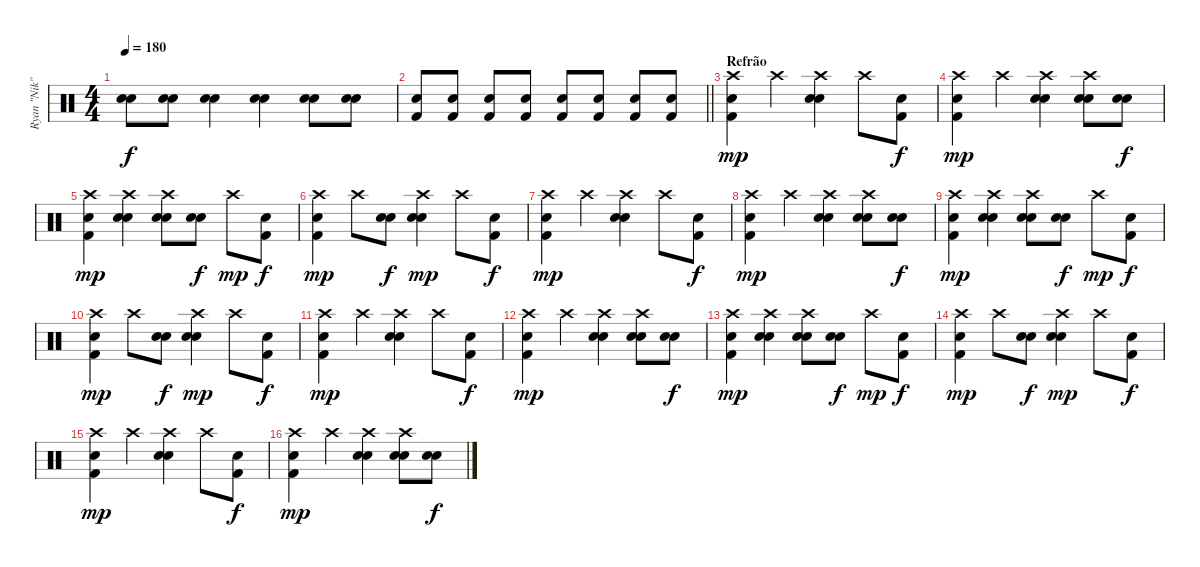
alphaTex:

\track ("Ryan \"Nik\"" "Ryan \"Nik\"") {instrument percussion}
\staff {score}
\articulation defaults
\ts (4 4)
\tempo 180
\clef neutral
\ks c
("Snare (hit) 2" "Electric Snare (hit)").8{dy f} ("Snare (hit) 2" "Electric Snare (hit)").8 ("Electric Snare (hit)" "Electric Snare (hit)").4 ("Electric Snare (hit)" "Snare (hit) 2").4 ("Electric Snare (hit)" "Electric Snare (hit)").8 ("Electric Snare (hit)" "Electric Snare (hit)").8 |
\barLineRight lightlight
("Kick (hit) 2" "Electric Snare (hit)").8 ("Kick (hit) 2" "Electric Snare (hit)").8 ("Kick (hit) 2" "Electric Snare (hit)").8 ("Kick (hit) 2" "Electric Snare (hit)").8 ("Kick (hit) 2" "Electric Snare (hit)").8 ("Kick (hit) 2" "Electric Snare (hit)").8 ("Kick (hit) 2" "Electric Snare (hit)").8 ("Kick (hit) 2" "Electric Snare (hit)").8 |
\section ("" "Refrão")
("Crash high (hit)" "Electric Snare (hit)" "Kick (hit) 2").4{dy mp} "Crash high (hit)".4 ("Crash high (hit)" "Electric Snare (hit)" "Electric Snare (hit)").4 "Crash high (hit)".8 ("Kick (hit) 2" "Electric Snare (hit)").8{dy f} |
("Crash high (hit)" "Electric Snare (hit)" "Kick (hit) 2").4{dy mp} "Crash high (hit)".4 ("Crash high (hit)" "Electric Snare (hit)" "Electric Snare (hit)").4 ("Crash high (hit)" "Electric Snare (hit)" "Electric Snare (hit)").8 ("Electric Snare (hit)" "Electric Snare (hit)").8{dy f} |
("Crash high (hit)" "Electric Snare (hit)" "Kick (hit) 2").4{dy mp} ("Crash high (hit)" "Electric Snare (hit)" "Electric Snare (hit)").4 ("Crash high (hit)" "Electric Snare (hit)" "Electric Snare (hit)").8 ("Electric Snare (hit)" "Electric Snare (hit)").8{dy f} "Crash high (hit)".8{dy mp} ("Kick (hit) 2" "Electric Snare (hit)").8{dy f} |
("Crash high (hit)" "Electric Snare (hit)" "Kick (hit) 2").4{dy mp} "Crash high (hit)".8 ("Electric Snare (hit)" "Electric Snare (hit)").8{dy f} ("Crash high (hit)" "Electric Snare (hit)" "Electric Snare (hit)").4{dy mp} "Crash high (hit)".8 ("Kick (hit) 2" "Electric Snare (hit)").8{dy f} |
("Crash high (hit)" "Electric Snare (hit)" "Kick (hit) 2").4{dy mp} "Crash high (hit)".4 ("Crash high (hit)" "Electric Snare (hit)" "Electric Snare (hit)").4 "Crash high (hit)".8 ("Kick (hit) 2" "Electric Snare (hit)").8{dy f} |
("Crash high (hit)" "Electric Snare (hit)" "Kick (hit) 2").4{dy mp} "Crash high (hit)".4 ("Crash high (hit)" "Electric Snare (hit)" "Electric Snare (hit)").4 ("Crash high (hit)" "Electric Snare (hit)" "Electric Snare (hit)").8 ("Electric Snare (hit)" "Electric Snare (hit)").8{dy f} |
("Crash high (hit)" "Electric Snare (hit)" "Kick (hit) 2").4{dy mp} ("Crash high (hit)" "Electric Snare (hit)" "Electric Snare (hit)").4 ("Crash high (hit)" "Electric Snare (hit)" "Electric Snare (hit)").8 ("Electric Snare (hit)" "Electric Snare (hit)").8{dy f} "Crash high (hit)".8{dy mp} ("Kick (hit) 2" "Electric Snare (hit)").8{dy f} |
("Crash high (hit)" "Electric Snare (hit)" "Kick (hit) 2").4{dy mp} "Crash high (hit)".8 ("Electric Snare (hit)" "Electric Snare (hit)").8{dy f} ("Crash high (hit)" "Electric Snare (hit)" "Electric Snare (hit)").4{dy mp} "Crash high (hit)".8 ("Kick (hit) 2" "Electric Snare (hit)").8{dy f} |
("Crash high (hit)" "Electric Snare (hit)" "Kick (hit) 2").4{dy mp} "Crash high (hit)".4 ("Crash high (hit)" "Electric Snare (hit)" "Electric Snare (hit)").4 "Crash high (hit)".8 ("Kick (hit) 2" "Electric Snare (hit)").8{dy f} |
("Crash high (hit)" "Electric Snare (hit)" "Kick (hit) 2").4{dy mp} "Crash high (hit)".4 ("Crash high (hit)" "Electric Snare (hit)" "Electric Snare (hit)").4 ("Crash high (hit)" "Electric Snare (hit)" "Electric Snare (hit)").8 ("Electric Snare (hit)" "Electric Snare (hit)").8{dy f} |
("Crash high (hit)" "Electric Snare (hit)" "Kick (hit) 2").4{dy mp} ("Crash high (hit)" "Electric Snare (hit)" "Electric Snare (hit)").4 ("Crash high (hit)" "Electric Snare (hit)" "Electric Snare (hit)").8 ("Electric Snare (hit)" "Electric Snare (hit)").8{dy f} "Crash high (hit)".8{dy mp} ("Kick (hit) 2" "Electric Snare (hit)").8{dy f} |
("Crash high (hit)" "Electric Snare (hit)" "Kick (hit) 2").4{dy mp} "Crash high (hit)".8 ("Electric Snare (hit)" "Electric Snare (hit)").8{dy f} ("Crash high (hit)" "Electric Snare (hit)" "Electric Snare (hit)").4{dy mp} "Crash high (hit)".8 ("Kick (hit) 2" "Electric Snare (hit)").8{dy f} |
("Crash high (hit)" "Electric Snare (hit)" "Kick (hit) 2").4{dy mp} "Crash high (hit)".4 ("Crash high (hit)" "Electric Snare (hit)" "Electric Snare (hit)").4 "Crash high (hit)".8 ("Kick (hit) 2" "Electric Snare (hit)").8{dy f} |
("Crash high (hit)" "Electric Snare (hit)" "Kick (hit) 2").4{dy mp} "Crash high (hit)".4 ("Crash high (hit)" "Electric Snare (hit)" "Electric Snare (hit)").4 ("Crash high (hit)" "Electric Snare (hit)" "Electric Snare (hit)").8 ("Electric Snare (hit)" "Electric Snare (hit)").8{dy f}
